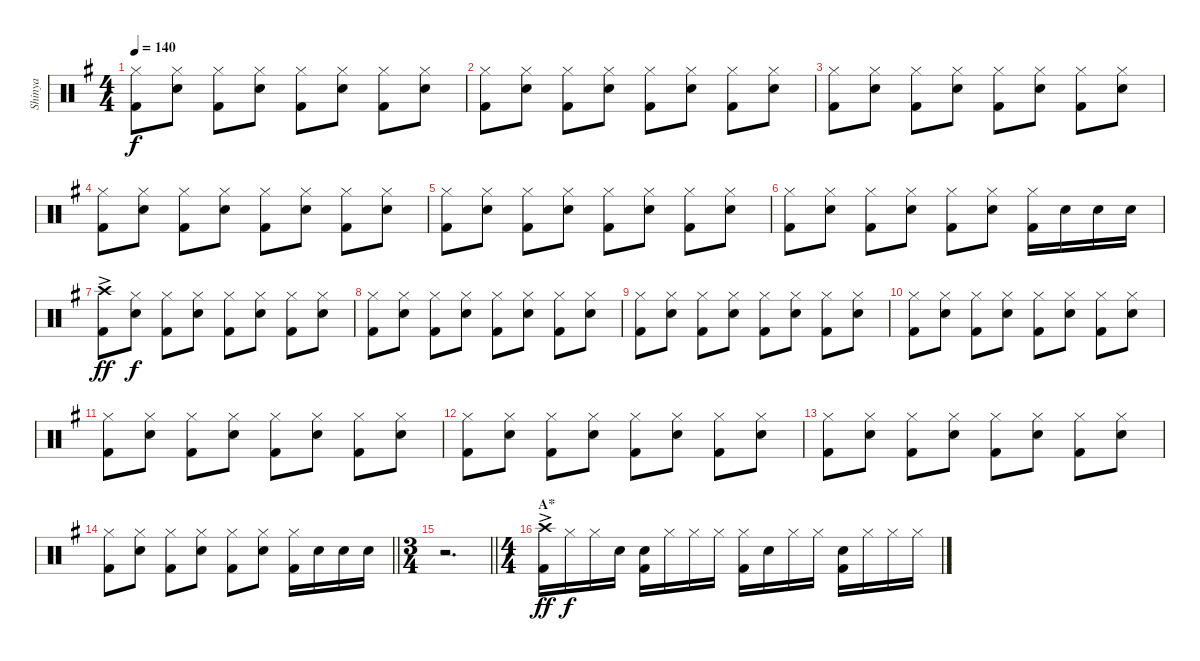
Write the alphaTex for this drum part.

\track ("Shinya" "Shinya") {instrument percussion}
\staff {score}
\articulation defaults
\ts (4 4)
\tempo 140
\clef neutral
\ks g
("Hi-Hat (closed)" "Kick (hit) 2").8{dy f} ("Hi-Hat (closed)" "Snare (hit) 2").8 ("Hi-Hat (closed)" "Kick (hit) 2").8 ("Hi-Hat (closed)" "Snare (hit) 2").8 ("Hi-Hat (closed)" "Kick (hit) 2").8 ("Hi-Hat (closed)" "Snare (hit) 2").8 ("Hi-Hat (closed)" "Kick (hit) 2").8 ("Hi-Hat (closed)" "Snare (hit) 2").8 |
("Hi-Hat (closed)" "Kick (hit) 2").8 ("Hi-Hat (closed)" "Snare (hit) 2").8 ("Hi-Hat (closed)" "Kick (hit) 2").8 ("Hi-Hat (closed)" "Snare (hit) 2").8 ("Hi-Hat (closed)" "Kick (hit) 2").8 ("Hi-Hat (closed)" "Snare (hit) 2").8 ("Hi-Hat (closed)" "Kick (hit) 2").8 ("Hi-Hat (closed)" "Snare (hit) 2").8 |
("Hi-Hat (closed)" "Kick (hit) 2").8 ("Hi-Hat (closed)" "Snare (hit) 2").8 ("Hi-Hat (closed)" "Kick (hit) 2").8 ("Hi-Hat (closed)" "Snare (hit) 2").8 ("Hi-Hat (closed)" "Kick (hit) 2").8 ("Hi-Hat (closed)" "Snare (hit) 2").8 ("Hi-Hat (closed)" "Kick (hit) 2").8 ("Hi-Hat (closed)" "Snare (hit) 2").8 |
("Hi-Hat (closed)" "Kick (hit) 2").8 ("Hi-Hat (closed)" "Snare (hit) 2").8 ("Hi-Hat (closed)" "Kick (hit) 2").8 ("Hi-Hat (closed)" "Snare (hit) 2").8 ("Hi-Hat (closed)" "Kick (hit) 2").8 ("Hi-Hat (closed)" "Snare (hit) 2").8 ("Hi-Hat (closed)" "Kick (hit) 2").8 ("Hi-Hat (closed)" "Snare (hit) 2").8 |
("Hi-Hat (closed)" "Kick (hit) 2").8 ("Hi-Hat (closed)" "Snare (hit) 2").8 ("Hi-Hat (closed)" "Kick (hit) 2").8 ("Hi-Hat (closed)" "Snare (hit) 2").8 ("Hi-Hat (closed)" "Kick (hit) 2").8 ("Hi-Hat (closed)" "Snare (hit) 2").8 ("Hi-Hat (closed)" "Kick (hit) 2").8 ("Hi-Hat (closed)" "Snare (hit) 2").8 |
("Hi-Hat (closed)" "Kick (hit) 2").8 ("Hi-Hat (closed)" "Snare (hit) 2").8 ("Hi-Hat (closed)" "Kick (hit) 2").8 ("Hi-Hat (closed)" "Snare (hit) 2").8 ("Hi-Hat (closed)" "Kick (hit) 2").8 ("Hi-Hat (closed)" "Snare (hit) 2").8 ("Hi-Hat (closed)" "Kick (hit) 2").16 "Snare (hit) 2".16 "Snare (hit) 2".16 "Snare (hit) 2".16 |
("Crash high (hit)"{ac} "Kick (hit) 2").8{dy ff} ("Hi-Hat (closed)" "Snare (hit) 2").8{dy f} ("Hi-Hat (closed)" "Kick (hit) 2").8 ("Hi-Hat (closed)" "Snare (hit) 2").8 ("Hi-Hat (closed)" "Kick (hit) 2").8 ("Hi-Hat (closed)" "Snare (hit) 2").8 ("Hi-Hat (closed)" "Kick (hit) 2").8 ("Hi-Hat (closed)" "Snare (hit) 2").8 |
("Hi-Hat (closed)" "Kick (hit) 2").8 ("Hi-Hat (closed)" "Snare (hit) 2").8 ("Hi-Hat (closed)" "Kick (hit) 2").8 ("Hi-Hat (closed)" "Snare (hit) 2").8 ("Hi-Hat (closed)" "Kick (hit) 2").8 ("Hi-Hat (closed)" "Snare (hit) 2").8 ("Hi-Hat (closed)" "Kick (hit) 2").8 ("Hi-Hat (closed)" "Snare (hit) 2").8 |
("Hi-Hat (closed)" "Kick (hit) 2").8 ("Hi-Hat (closed)" "Snare (hit) 2").8 ("Hi-Hat (closed)" "Kick (hit) 2").8 ("Hi-Hat (closed)" "Snare (hit) 2").8 ("Hi-Hat (closed)" "Kick (hit) 2").8 ("Hi-Hat (closed)" "Snare (hit) 2").8 ("Hi-Hat (closed)" "Kick (hit) 2").8 ("Hi-Hat (closed)" "Snare (hit) 2").8 |
("Hi-Hat (closed)" "Kick (hit) 2").8 ("Hi-Hat (closed)" "Snare (hit) 2").8 ("Hi-Hat (closed)" "Kick (hit) 2").8 ("Hi-Hat (closed)" "Snare (hit) 2").8 ("Hi-Hat (closed)" "Kick (hit) 2").8 ("Hi-Hat (closed)" "Snare (hit) 2").8 ("Hi-Hat (closed)" "Kick (hit) 2").8 ("Hi-Hat (closed)" "Snare (hit) 2").8 |
("Hi-Hat (closed)" "Kick (hit) 2").8 ("Hi-Hat (closed)" "Snare (hit) 2").8 ("Hi-Hat (closed)" "Kick (hit) 2").8 ("Hi-Hat (closed)" "Snare (hit) 2").8 ("Hi-Hat (closed)" "Kick (hit) 2").8 ("Hi-Hat (closed)" "Snare (hit) 2").8 ("Hi-Hat (closed)" "Kick (hit) 2").8 ("Hi-Hat (closed)" "Snare (hit) 2").8 |
("Hi-Hat (closed)" "Kick (hit) 2").8 ("Hi-Hat (closed)" "Snare (hit) 2").8 ("Hi-Hat (closed)" "Kick (hit) 2").8 ("Hi-Hat (closed)" "Snare (hit) 2").8 ("Hi-Hat (closed)" "Kick (hit) 2").8 ("Hi-Hat (closed)" "Snare (hit) 2").8 ("Hi-Hat (closed)" "Kick (hit) 2").8 ("Hi-Hat (closed)" "Snare (hit) 2").8 |
("Hi-Hat (closed)" "Kick (hit) 2").8 ("Hi-Hat (closed)" "Snare (hit) 2").8 ("Hi-Hat (closed)" "Kick (hit) 2").8 ("Hi-Hat (closed)" "Snare (hit) 2").8 ("Hi-Hat (closed)" "Kick (hit) 2").8 ("Hi-Hat (closed)" "Snare (hit) 2").8 ("Hi-Hat (closed)" "Kick (hit) 2").8 ("Hi-Hat (closed)" "Snare (hit) 2").8 |
\barLineRight lightlight
("Hi-Hat (closed)" "Kick (hit) 2").8 ("Hi-Hat (closed)" "Snare (hit) 2").8 ("Hi-Hat (closed)" "Kick (hit) 2").8 ("Hi-Hat (closed)" "Snare (hit) 2").8 ("Hi-Hat (closed)" "Kick (hit) 2").8 ("Hi-Hat (closed)" "Snare (hit) 2").8 ("Hi-Hat (closed)" "Kick (hit) 2").16 "Snare (hit) 2".16 "Snare (hit) 2".16 "Snare (hit) 2".16 |
\ts (3 4)
\barLineRight lightlight
r.2{d} |
\ts (4 4)
\section ("" "A*")
("Crash high (hit)"{ac} "Kick (hit) 2").16{dy ff} "Hi-Hat (closed)".16{dy f} "Hi-Hat (closed)".16 "Snare (hit) 2".16 ("Snare (hit) 2" "Kick (hit) 2").16 "Hi-Hat (closed)".16 "Hi-Hat (closed)".16 "Hi-Hat (closed)".16 ("Hi-Hat (closed)" "Kick (hit) 2").16 "Snare (hit) 2".16 "Hi-Hat (closed)".16 "Hi-Hat (closed)".16 ("Snare (hit) 2" "Kick (hit) 2").16 "Hi-Hat (closed)".16 "Hi-Hat (closed)".16 "Hi-Hat (closed)".16
